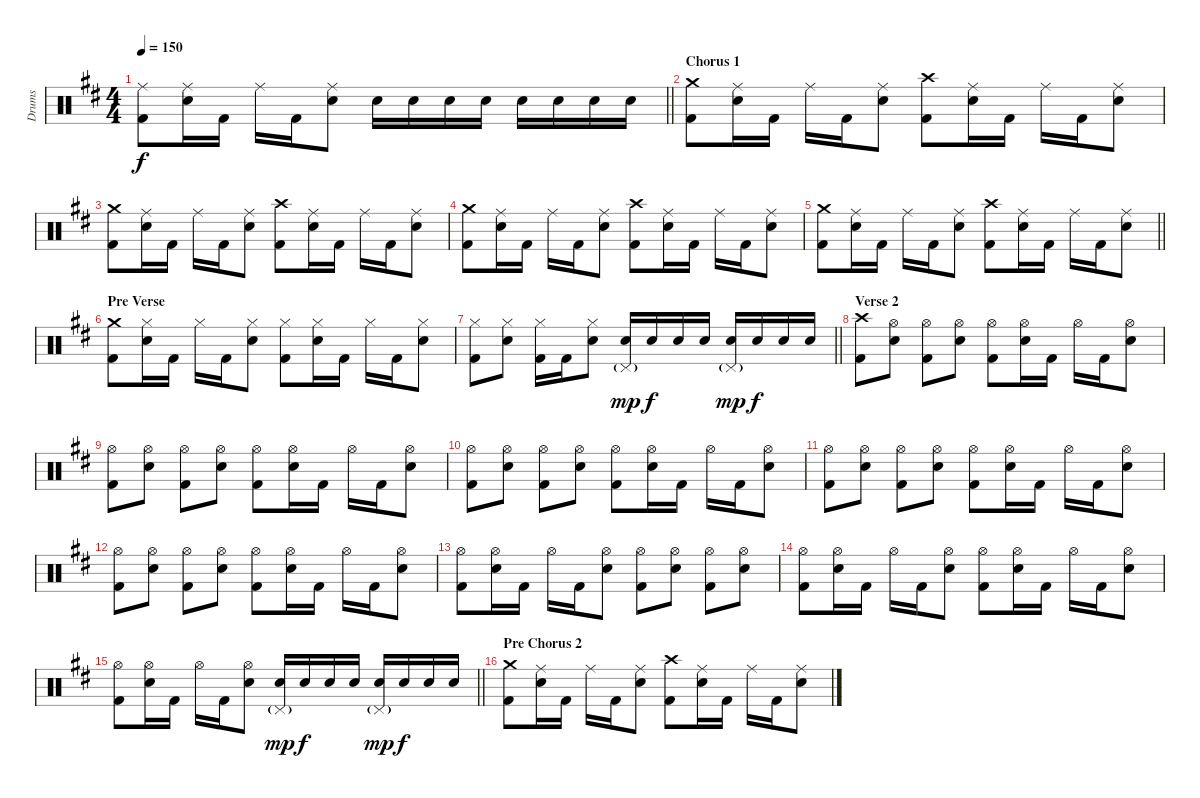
\track ("Drums" "Drums") {instrument percussion}
\staff {score}
\articulation defaults
\ts (4 4)
\tempo 150
\clef neutral
\barLineRight lightlight
\ks bminor
("Ride (middle)" "Kick (hit) 2").8{dy f} ("Ride (middle)" "Electric Snare (hit)").16 "Kick (hit) 2".16 "Ride (middle)".16 "Kick (hit) 2".16 ("Ride (middle)" "Electric Snare (hit)").8 "Electric Snare (hit)".16 "Electric Snare (hit)".16 "Electric Snare (hit)".16 "Electric Snare (hit)".16 "Electric Snare (hit)".16 "Electric Snare (hit)".16 "Electric Snare (hit)".16 "Electric Snare (hit)".16 |
\section ("" "Chorus 1")
("Crash medium (hit)" "Kick (hit) 2").8 ("Ride (middle)" "Electric Snare (hit)").16 "Kick (hit) 2".16 "Ride (middle)".16 "Kick (hit) 2".16 ("Ride (middle)" "Electric Snare (hit)").8 ("Crash high (hit)" "Kick (hit) 2").8 ("Ride (middle)" "Electric Snare (hit)").16 "Kick (hit) 2".16 "Ride (middle)".16 "Kick (hit) 2".16 ("Ride (middle)" "Electric Snare (hit)").8 |
("Crash medium (hit)" "Kick (hit) 2").8 ("Ride (middle)" "Electric Snare (hit)").16 "Kick (hit) 2".16 "Ride (middle)".16 "Kick (hit) 2".16 ("Ride (middle)" "Electric Snare (hit)").8 ("Crash high (hit)" "Kick (hit) 2").8 ("Ride (middle)" "Electric Snare (hit)").16 "Kick (hit) 2".16 "Ride (middle)".16 "Kick (hit) 2".16 ("Ride (middle)" "Electric Snare (hit)").8 |
("Crash medium (hit)" "Kick (hit) 2").8 ("Ride (middle)" "Electric Snare (hit)").16 "Kick (hit) 2".16 "Ride (middle)".16 "Kick (hit) 2".16 ("Ride (middle)" "Electric Snare (hit)").8 ("Crash high (hit)" "Kick (hit) 2").8 ("Ride (middle)" "Electric Snare (hit)").16 "Kick (hit) 2".16 "Ride (middle)".16 "Kick (hit) 2".16 ("Ride (middle)" "Electric Snare (hit)").8 |
\barLineRight lightlight
("Crash medium (hit)" "Kick (hit) 2").8 ("Ride (middle)" "Electric Snare (hit)").16 "Kick (hit) 2".16 "Ride (middle)".16 "Kick (hit) 2".16 ("Ride (middle)" "Electric Snare (hit)").8 ("Crash high (hit)" "Kick (hit) 2").8 ("Ride (middle)" "Electric Snare (hit)").16 "Kick (hit) 2".16 "Ride (middle)".16 "Kick (hit) 2".16 ("Ride (middle)" "Electric Snare (hit)").8 |
\section ("" "Pre Verse")
("Crash medium (hit)" "Kick (hit) 2").8 ("Hi-Hat (closed)" "Electric Snare (hit)").16 "Kick (hit) 2".16 "Hi-Hat (closed)".16 "Kick (hit) 2".16 ("Hi-Hat (closed)" "Electric Snare (hit)").8 ("Hi-Hat (closed)" "Kick (hit) 2").8 ("Hi-Hat (closed)" "Electric Snare (hit)").16 "Kick (hit) 2".16 "Hi-Hat (closed)".16 "Kick (hit) 2".16 ("Hi-Hat (closed)" "Electric Snare (hit)").8 |
\barLineRight lightlight
("Hi-Hat (closed)" "Kick (hit) 2").8 ("Hi-Hat (closed)" "Electric Snare (hit)").8 ("Hi-Hat (closed)" "Kick (hit) 2").16 "Kick (hit) 2".16 ("Hi-Hat (closed)" "Electric Snare (hit)").8 ("Pedal Hi-Hat (hit)"{g} "Electric Snare (hit)").16{dy mp} "Electric Snare (hit)".16{dy f} "Electric Snare (hit)".16 "Electric Snare (hit)".16 ("Pedal Hi-Hat (hit)"{g} "Electric Snare (hit)").16{dy mp} "Electric Snare (hit)".16{dy f} "Electric Snare (hit)".16 "Electric Snare (hit)".16 |
\section ("" "Verse 2")
("Crash high (hit)" "Kick (hit) 2").8 ("Hi-Hat (open)" "Electric Snare (hit)").8 ("Hi-Hat (open)" "Kick (hit) 2").8 ("Hi-Hat (open)" "Electric Snare (hit)").8 ("Hi-Hat (open)" "Kick (hit) 2").8 ("Hi-Hat (open)" "Electric Snare (hit)").16 "Kick (hit) 2".16 "Hi-Hat (open)".16 "Kick (hit) 2".16 ("Hi-Hat (open)" "Electric Snare (hit)").8 |
("Hi-Hat (open)" "Kick (hit) 2").8 ("Hi-Hat (open)" "Electric Snare (hit)").8 ("Hi-Hat (open)" "Kick (hit) 2").8 ("Hi-Hat (open)" "Electric Snare (hit)").8 ("Hi-Hat (open)" "Kick (hit) 2").8 ("Hi-Hat (open)" "Electric Snare (hit)").16 "Kick (hit) 2".16 "Hi-Hat (open)".16 "Kick (hit) 2".16 ("Hi-Hat (open)" "Electric Snare (hit)").8 |
("Hi-Hat (open)" "Kick (hit) 2").8 ("Hi-Hat (open)" "Electric Snare (hit)").8 ("Hi-Hat (open)" "Kick (hit) 2").8 ("Hi-Hat (open)" "Electric Snare (hit)").8 ("Hi-Hat (open)" "Kick (hit) 2").8 ("Hi-Hat (open)" "Electric Snare (hit)").16 "Kick (hit) 2".16 "Hi-Hat (open)".16 "Kick (hit) 2".16 ("Hi-Hat (open)" "Electric Snare (hit)").8 |
("Hi-Hat (open)" "Kick (hit) 2").8 ("Hi-Hat (open)" "Electric Snare (hit)").8 ("Hi-Hat (open)" "Kick (hit) 2").8 ("Hi-Hat (open)" "Electric Snare (hit)").8 ("Hi-Hat (open)" "Kick (hit) 2").8 ("Hi-Hat (open)" "Electric Snare (hit)").16 "Kick (hit) 2".16 "Hi-Hat (open)".16 "Kick (hit) 2".16 ("Hi-Hat (open)" "Electric Snare (hit)").8 |
("Hi-Hat (open)" "Kick (hit) 2").8 ("Hi-Hat (open)" "Electric Snare (hit)").8 ("Hi-Hat (open)" "Kick (hit) 2").8 ("Hi-Hat (open)" "Electric Snare (hit)").8 ("Hi-Hat (open)" "Kick (hit) 2").8 ("Hi-Hat (open)" "Electric Snare (hit)").16 "Kick (hit) 2".16 "Hi-Hat (open)".16 "Kick (hit) 2".16 ("Hi-Hat (open)" "Electric Snare (hit)").8 |
("Hi-Hat (open)" "Kick (hit) 2").8 ("Hi-Hat (open)" "Electric Snare (hit)").16 "Kick (hit) 2".16 "Hi-Hat (open)".16 "Kick (hit) 2".16 ("Hi-Hat (open)" "Electric Snare (hit)").8 ("Hi-Hat (open)" "Kick (hit) 2").8 ("Hi-Hat (open)" "Electric Snare (hit)").8 ("Hi-Hat (open)" "Kick (hit) 2").8 ("Hi-Hat (open)" "Electric Snare (hit)").8 |
("Hi-Hat (open)" "Kick (hit) 2").8 ("Hi-Hat (open)" "Electric Snare (hit)").16 "Kick (hit) 2".16 "Hi-Hat (open)".16 "Kick (hit) 2".16 ("Hi-Hat (open)" "Electric Snare (hit)").8 ("Hi-Hat (open)" "Kick (hit) 2").8 ("Hi-Hat (open)" "Electric Snare (hit)").16 "Kick (hit) 2".16 "Hi-Hat (open)".16 "Kick (hit) 2".16 ("Hi-Hat (open)" "Electric Snare (hit)").8 |
\barLineRight lightlight
("Hi-Hat (open)" "Kick (hit) 2").8 ("Hi-Hat (open)" "Electric Snare (hit)").16 "Kick (hit) 2".16 "Hi-Hat (open)".16 "Kick (hit) 2".16 ("Hi-Hat (open)" "Electric Snare (hit)").8 ("Pedal Hi-Hat (hit)"{g} "Electric Snare (hit)").16{dy mp} "Electric Snare (hit)".16{dy f} "Electric Snare (hit)".16 "Electric Snare (hit)".16 ("Pedal Hi-Hat (hit)"{g} "Electric Snare (hit)").16{dy mp} "Electric Snare (hit)".16{dy f} "Electric Snare (hit)".16 "Electric Snare (hit)".16 |
\section ("" "Pre Chorus 2")
("Crash medium (hit)" "Kick (hit) 2").8 ("Ride (middle)" "Electric Snare (hit)").16 "Kick (hit) 2".16 "Ride (middle)".16 "Kick (hit) 2".16 ("Ride (middle)" "Electric Snare (hit)").8 ("Crash high (hit)" "Kick (hit) 2").8 ("Ride (middle)" "Electric Snare (hit)").16 "Kick (hit) 2".16 "Ride (middle)".16 "Kick (hit) 2".16 ("Ride (middle)" "Electric Snare (hit)").8
